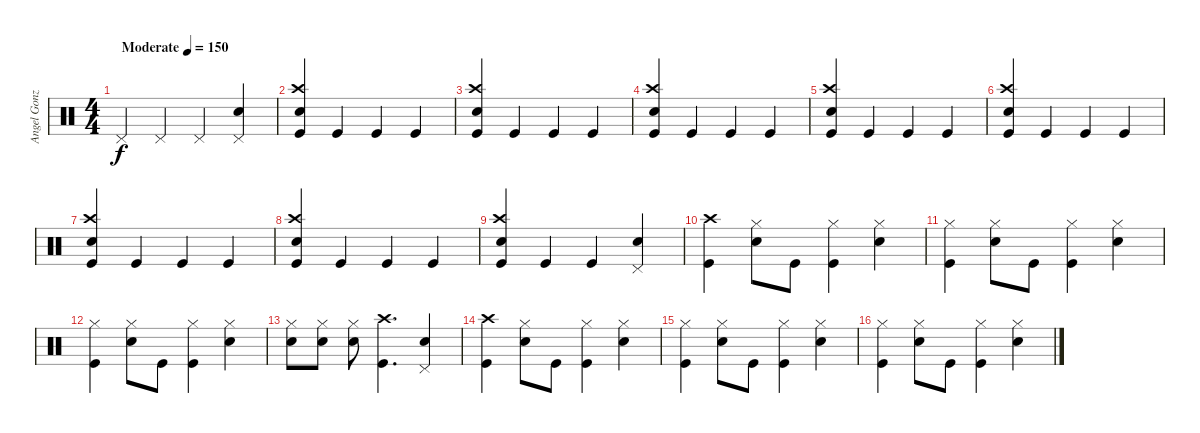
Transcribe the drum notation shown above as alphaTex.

\track ("Angel González - Batería" "Angel Gonz") {instrument percussion}
\staff {score}
\articulation defaults
\ts (4 4)
\tempo (150 "Moderate")
\clef neutral
\ks c "Pedal Hi-Hat (hit)".4{dy f} "Pedal Hi-Hat (hit)".4 "Pedal Hi-Hat (hit)".4
("Electric Snare (hit)" "Pedal Hi-Hat (hit)").4 |
("Crash high (hit)" "Electric Snare (hit)" "Kick (hit)").4 "Kick (hit)".4 "Kick (hit)".4 "Kick (hit)".4 |
("Crash high (hit)" "Electric Snare (hit)" "Kick (hit)").4 "Kick (hit)".4 "Kick (hit)".4 "Kick (hit)".4 |
("Crash high (hit)" "Electric Snare (hit)" "Kick (hit)").4 "Kick (hit)".4 "Kick (hit)".4 "Kick (hit)".4 |
("Crash high (hit)" "Electric Snare (hit)" "Kick (hit)").4 "Kick (hit)".4 "Kick (hit)".4 "Kick (hit)".4 |
("Crash high (hit)" "Electric Snare (hit)" "Kick (hit)").4 "Kick (hit)".4 "Kick (hit)".4 "Kick (hit)".4 |
("Crash high (hit)" "Electric Snare (hit)" "Kick (hit)").4 "Kick (hit)".4 "Kick (hit)".4 "Kick (hit)".4 |
("Crash high (hit)" "Electric Snare (hit)" "Kick (hit)").4 "Kick (hit)".4 "Kick (hit)".4 "Kick (hit)".4 |
("Crash high (hit)" "Electric Snare (hit)" "Kick (hit)").4 "Kick (hit)".4 "Kick (hit)".4 ("Electric Snare (hit)" "Pedal Hi-Hat (hit)").4 |
("Crash high (hit)" "Kick (hit)").4 ("Hi-Hat (closed)" "Electric Snare (hit)").8 "Kick (hit)".8 ("Hi-Hat (closed)" "Kick (hit)").4 ("Hi-Hat (closed)" "Electric Snare (hit)").4 |
("Hi-Hat (closed)" "Kick (hit)").4 ("Hi-Hat (closed)" "Electric Snare (hit)").8 "Kick (hit)".8 ("Hi-Hat (closed)" "Kick (hit)").4 ("Hi-Hat (closed)" "Electric Snare (hit)").4 |
("Hi-Hat (closed)" "Kick (hit)").4 ("Hi-Hat (closed)" "Electric Snare (hit)").8 "Kick (hit)".8 ("Hi-Hat (closed)" "Kick (hit)").4 ("Hi-Hat (closed)" "Electric Snare (hit)").4 |
("Hi-Hat (closed)" "Electric Snare (hit)").8 ("Hi-Hat (closed)" "Electric Snare (hit)").8 ("Hi-Hat (closed)" "Electric Snare (hit)").8 ("Crash high (hit)" "Kick (hit)").4{d} ("Electric Snare (hit)" "Pedal Hi-Hat (hit)").4 |
("Crash high (hit)" "Kick (hit)").4 ("Hi-Hat (closed)" "Electric Snare (hit)").8 "Kick (hit)".8 ("Hi-Hat (closed)" "Kick (hit)").4 ("Hi-Hat (closed)" "Electric Snare (hit)").4 |
("Hi-Hat (closed)" "Kick (hit)").4 ("Hi-Hat (closed)" "Electric Snare (hit)").8 "Kick (hit)".8 ("Hi-Hat (closed)" "Kick (hit)").4 ("Hi-Hat (closed)" "Electric Snare (hit)").4 |
("Hi-Hat (closed)" "Kick (hit)").4 ("Hi-Hat (closed)" "Electric Snare (hit)").8 "Kick (hit)".8 ("Hi-Hat (closed)" "Kick (hit)").4 ("Hi-Hat (closed)" "Electric Snare (hit)").4
